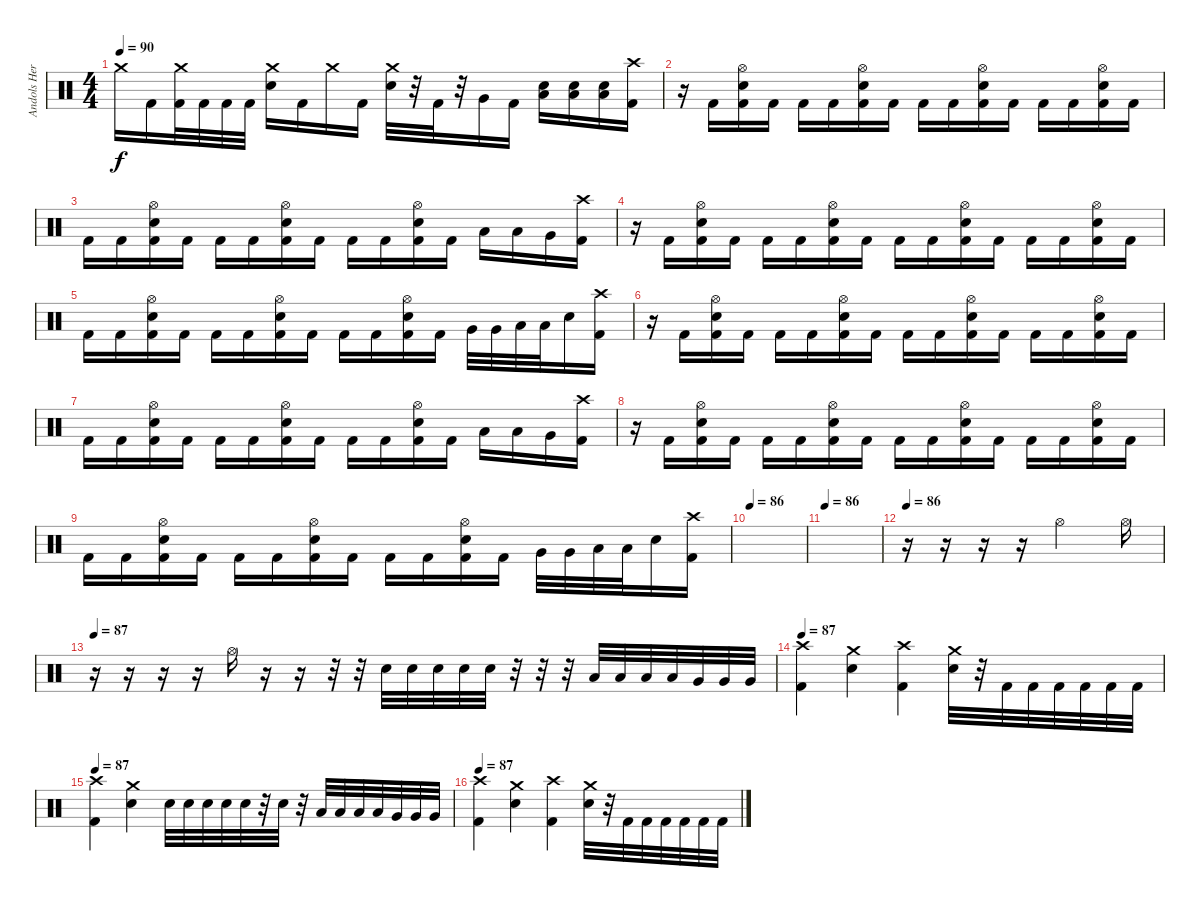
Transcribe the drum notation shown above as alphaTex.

\track ("Andols Herrick" "Andols Her") {instrument percussion}
\staff {score}
\articulation defaults
\ts (4 4)
\tempo 90
\clef neutral
\ks c "Crash medium (hit)".16{dy f} "Kick (hit) 2".16
("Crash medium (hit)" "Kick (hit) 2").32 "Kick (hit) 2".32 "Kick (hit) 2".32 "Kick (hit) 2".32 ("Crash medium (hit)" "Electric Snare (hit)").16 "Kick (hit) 2".16 "Crash medium (hit)".16 "Kick (hit) 2".16 ("Crash medium (hit)" "Electric Snare (hit)").32 r.32 "Kick (hit) 2".32 r.32 "Very Low Tom (hit)".16 "Kick (hit) 2".16 ("Electric Snare (hit)" "Low Tom (hit)").16 ("Electric Snare (hit)" "Low Tom (hit)").16 ("Electric Snare (hit)" "Low Tom (hit)").16 ("Crash high (hit)" "Kick (hit) 2").16 |
r.16 "Kick (hit) 2".16 ("Hi-Hat (open)" "Electric Snare (hit)" "Kick (hit) 2").16 "Kick (hit) 2".16 "Kick (hit) 2".16 "Kick (hit) 2".16 ("Hi-Hat (open)" "Electric Snare (hit)" "Kick (hit) 2").16 "Kick (hit) 2".16 "Kick (hit) 2".16 "Kick (hit) 2".16 ("Hi-Hat (open)" "Electric Snare (hit)" "Kick (hit) 2").16 "Kick (hit) 2".16 "Kick (hit) 2".16 "Kick (hit) 2".16 ("Hi-Hat (open)" "Electric Snare (hit)" "Kick (hit) 2").16 "Kick (hit) 2".16 |
"Kick (hit) 2".16 "Kick (hit) 2".16 ("Hi-Hat (open)" "Electric Snare (hit)" "Kick (hit) 2").16 "Kick (hit) 2".16 "Kick (hit) 2".16 "Kick (hit) 2".16 ("Hi-Hat (open)" "Electric Snare (hit)" "Kick (hit) 2").16 "Kick (hit) 2".16 "Kick (hit) 2".16 "Kick (hit) 2".16 ("Hi-Hat (open)" "Electric Snare (hit)" "Kick (hit) 2").16 "Kick (hit) 2".16 "Low Tom (hit)".16 "Low Tom (hit)".16 "Very Low Tom (hit)".16 ("Crash high (hit)" "Kick (hit) 2").16 |
r.16 "Kick (hit) 2".16 ("Hi-Hat (open)" "Electric Snare (hit)" "Kick (hit) 2").16 "Kick (hit) 2".16 "Kick (hit) 2".16 "Kick (hit) 2".16 ("Hi-Hat (open)" "Electric Snare (hit)" "Kick (hit) 2").16 "Kick (hit) 2".16 "Kick (hit) 2".16 "Kick (hit) 2".16 ("Hi-Hat (open)" "Electric Snare (hit)" "Kick (hit) 2").16 "Kick (hit) 2".16 "Kick (hit) 2".16 "Kick (hit) 2".16 ("Hi-Hat (open)" "Electric Snare (hit)" "Kick (hit) 2").16 "Kick (hit) 2".16 |
"Kick (hit) 2".16 "Kick (hit) 2".16 ("Hi-Hat (open)" "Electric Snare (hit)" "Kick (hit) 2").16 "Kick (hit) 2".16 "Kick (hit) 2".16 "Kick (hit) 2".16 ("Hi-Hat (open)" "Electric Snare (hit)" "Kick (hit) 2").16 "Kick (hit) 2".16 "Kick (hit) 2".16 "Kick (hit) 2".16 ("Hi-Hat (open)" "Electric Snare (hit)" "Kick (hit) 2").16 "Kick (hit) 2".16 "Very Low Tom (hit)".32 "Very Low Tom (hit)".32 "Low Tom (hit)".32 "Low Tom (hit)".32 "Electric Snare (hit)".16 ("Crash high (hit)" "Kick (hit) 2").16 |
r.16 "Kick (hit) 2".16 ("Hi-Hat (open)" "Electric Snare (hit)" "Kick (hit) 2").16 "Kick (hit) 2".16 "Kick (hit) 2".16 "Kick (hit) 2".16 ("Hi-Hat (open)" "Electric Snare (hit)" "Kick (hit) 2").16 "Kick (hit) 2".16 "Kick (hit) 2".16 "Kick (hit) 2".16 ("Hi-Hat (open)" "Electric Snare (hit)" "Kick (hit) 2").16 "Kick (hit) 2".16 "Kick (hit) 2".16 "Kick (hit) 2".16 ("Hi-Hat (open)" "Electric Snare (hit)" "Kick (hit) 2").16 "Kick (hit) 2".16 |
"Kick (hit) 2".16 "Kick (hit) 2".16 ("Hi-Hat (open)" "Electric Snare (hit)" "Kick (hit) 2").16 "Kick (hit) 2".16 "Kick (hit) 2".16 "Kick (hit) 2".16 ("Hi-Hat (open)" "Electric Snare (hit)" "Kick (hit) 2").16 "Kick (hit) 2".16 "Kick (hit) 2".16 "Kick (hit) 2".16 ("Hi-Hat (open)" "Electric Snare (hit)" "Kick (hit) 2").16 "Kick (hit) 2".16 "Low Tom (hit)".16 "Low Tom (hit)".16 "Very Low Tom (hit)".16 ("Crash high (hit)" "Kick (hit) 2").16 |
r.16 "Kick (hit) 2".16 ("Hi-Hat (open)" "Electric Snare (hit)" "Kick (hit) 2").16 "Kick (hit) 2".16 "Kick (hit) 2".16 "Kick (hit) 2".16 ("Hi-Hat (open)" "Electric Snare (hit)" "Kick (hit) 2").16 "Kick (hit) 2".16 "Kick (hit) 2".16 "Kick (hit) 2".16 ("Hi-Hat (open)" "Electric Snare (hit)" "Kick (hit) 2").16 "Kick (hit) 2".16 "Kick (hit) 2".16 "Kick (hit) 2".16 ("Hi-Hat (open)" "Electric Snare (hit)" "Kick (hit) 2").16 "Kick (hit) 2".16 |
"Kick (hit) 2".16 "Kick (hit) 2".16 ("Hi-Hat (open)" "Electric Snare (hit)" "Kick (hit) 2").16 "Kick (hit) 2".16 "Kick (hit) 2".16 "Kick (hit) 2".16 ("Hi-Hat (open)" "Electric Snare (hit)" "Kick (hit) 2").16 "Kick (hit) 2".16 "Kick (hit) 2".16 "Kick (hit) 2".16 ("Hi-Hat (open)" "Electric Snare (hit)" "Kick (hit) 2").16 "Kick (hit) 2".16 "Very Low Tom (hit)".32 "Very Low Tom (hit)".32 "Low Tom (hit)".32 "Low Tom (hit)".32 "Electric Snare (hit)".16 ("Crash high (hit)" "Kick (hit) 2").16 |
\tempo 86
|
\tempo 86
|
\tempo 86
r.16 r.16 r.16 r.16 "Hi-Hat (open)".2 "Hi-Hat (open)".16 |
\tempo 86
\tempo 87
r.16 r.16 r.16 r.16 "Hi-Hat (open)".16 r.16 r.16 r.32 r.32 "Electric Snare (hit)".32 "Electric Snare (hit)".32 "Electric Snare (hit)".32 "Electric Snare (hit)".32 "Electric Snare (hit)".32 r.32 r.32 r.32 "Low Tom (hit)".32 "Low Tom (hit)".32 "Low Tom (hit)".32 "Low Tom (hit)".32 "Very Low Tom (hit)".32 "Very Low Tom (hit)".32 "Very Low Tom (hit)".32 |
\tempo 86
\tempo 87
("Crash high (hit)" "Kick (hit) 2").4 ("Crash medium (hit)" "Electric Snare (hit)").4 ("Crash high (hit)" "Kick (hit) 2").4 ("Crash medium (hit)" "Electric Snare (hit)").32 r.32 "Kick (hit) 2".32 "Kick (hit) 2".32 "Kick (hit) 2".32 "Kick (hit) 2".32 "Kick (hit) 2".32 "Kick (hit) 2".32 |
\tempo 86
\tempo 87
("Crash high (hit)" "Kick (hit) 2").4 ("Crash medium (hit)" "Electric Snare (hit)").4 "Electric Snare (hit)".32 "Electric Snare (hit)".32 "Electric Snare (hit)".32 "Electric Snare (hit)".32 "Electric Snare (hit)".32 r.32 "Electric Snare (hit)".32 r.32 "Low Tom (hit)".32 "Low Tom (hit)".32 "Low Tom (hit)".32 "Low Tom (hit)".32 "Very Low Tom (hit)".32 "Very Low Tom (hit)".32 "Very Low Tom (hit)".32 |
\tempo 86
\tempo 87
("Crash high (hit)" "Kick (hit) 2").4 ("Crash medium (hit)" "Electric Snare (hit)").4 ("Crash high (hit)" "Kick (hit) 2").4 ("Crash medium (hit)" "Electric Snare (hit)").32 r.32 "Kick (hit) 2".32 "Kick (hit) 2".32 "Kick (hit) 2".32 "Kick (hit) 2".32 "Kick (hit) 2".32 "Kick (hit) 2".32
